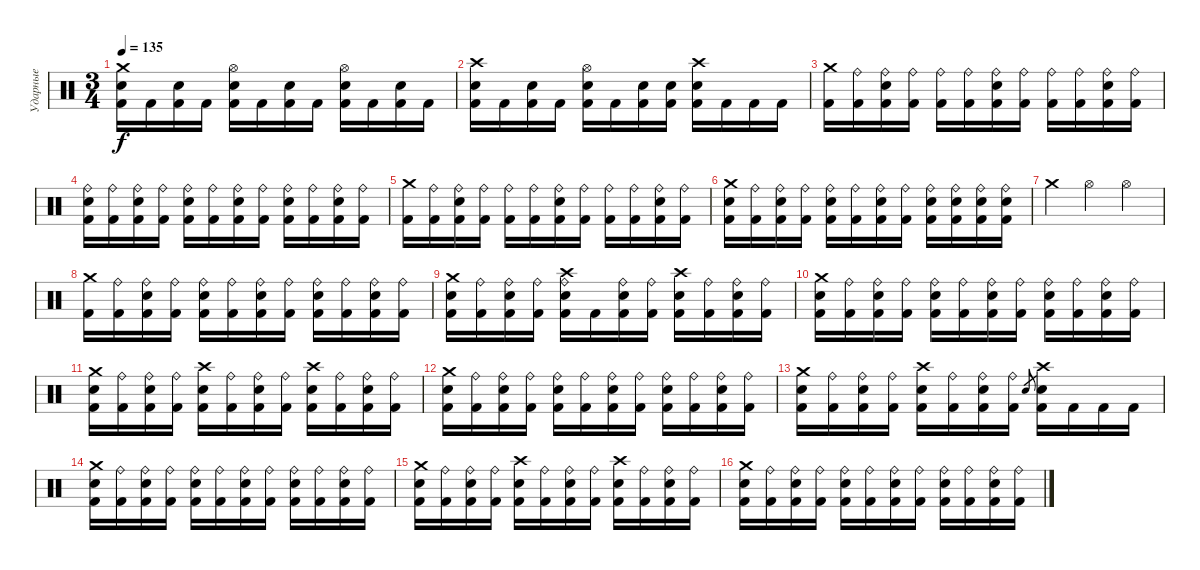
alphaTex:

\track ("Ударные" "Ударные") {instrument percussion}
\staff {score}
\articulation defaults
\ts (3 4)
\tempo 135
\clef neutral
\ks c
("Crash medium (hit)" "Electric Snare (hit)" "Kick (hit) 2").16{dy f} "Kick (hit) 2".16 ("Electric Snare (hit)" "Kick (hit) 2").16 "Kick (hit) 2".16 ("Hi-Hat (open)" "Electric Snare (hit)" "Kick (hit) 2").16 "Kick (hit) 2".16 ("Electric Snare (hit)" "Kick (hit) 2").16 "Kick (hit) 2".16 ("Hi-Hat (open)" "Electric Snare (hit)" "Kick (hit) 2").16 "Kick (hit) 2".16 ("Electric Snare (hit)" "Kick (hit) 2").16 "Kick (hit) 2".16 |
("Crash high (hit)" "Electric Snare (hit)" "Kick (hit) 2").16 "Kick (hit) 2".16 ("Electric Snare (hit)" "Kick (hit) 2").16 "Kick (hit) 2".16 ("Hi-Hat (open)" "Electric Snare (hit)" "Kick (hit) 2").16 "Kick (hit) 2".16 ("Electric Snare (hit)" "Kick (hit) 2").16 ("Electric Snare (hit)" "Kick (hit) 2").16 ("Crash high (hit)" "Electric Snare (hit)" "Kick (hit) 2").16 "Kick (hit) 2".16 "Kick (hit) 2".16 "Kick (hit) 2".16 |
("Crash medium (hit)" "Kick (hit) 2").16 ("Ride (bell)" "Kick (hit) 2").16 ("Ride (bell)" "Electric Snare (hit)" "Kick (hit) 2").16 ("Ride (bell)" "Kick (hit) 2").16 ("Ride (bell)" "Kick (hit) 2").16 ("Ride (bell)" "Kick (hit) 2").16 ("Ride (bell)" "Electric Snare (hit)" "Kick (hit) 2").16 ("Ride (bell)" "Kick (hit) 2").16 ("Ride (bell)" "Kick (hit) 2").16 ("Ride (bell)" "Kick (hit) 2").16 ("Ride (bell)" "Electric Snare (hit)" "Kick (hit) 2").16 ("Ride (bell)" "Kick (hit) 2").16 |
("Ride (bell)" "Electric Snare (hit)" "Kick (hit) 2").16 ("Ride (bell)" "Kick (hit) 2").16 ("Ride (bell)" "Electric Snare (hit)" "Kick (hit) 2").16 ("Ride (bell)" "Kick (hit) 2").16 ("Ride (bell)" "Electric Snare (hit)" "Kick (hit) 2").16 ("Ride (bell)" "Kick (hit) 2").16 ("Ride (bell)" "Electric Snare (hit)" "Kick (hit) 2").16 ("Ride (bell)" "Kick (hit) 2").16 ("Ride (bell)" "Electric Snare (hit)" "Kick (hit) 2").16 ("Ride (bell)" "Kick (hit) 2").16 ("Ride (bell)" "Electric Snare (hit)" "Kick (hit) 2").16 ("Ride (bell)" "Kick (hit) 2").16 |
("Crash medium (hit)" "Kick (hit) 2").16 ("Ride (bell)" "Kick (hit) 2").16 ("Ride (bell)" "Electric Snare (hit)" "Kick (hit) 2").16 ("Ride (bell)" "Kick (hit) 2").16 ("Ride (bell)" "Kick (hit) 2").16 ("Ride (bell)" "Kick (hit) 2").16 ("Ride (bell)" "Electric Snare (hit)" "Kick (hit) 2").16 ("Ride (bell)" "Kick (hit) 2").16 ("Ride (bell)" "Kick (hit) 2").16 ("Ride (bell)" "Kick (hit) 2").16 ("Ride (bell)" "Electric Snare (hit)" "Kick (hit) 2").16 ("Ride (bell)" "Kick (hit) 2").16 |
("Crash medium (hit)" "Electric Snare (hit)" "Kick (hit) 2").16 ("Ride (bell)" "Kick (hit) 2").16 ("Ride (bell)" "Electric Snare (hit)" "Kick (hit) 2").16 ("Ride (bell)" "Kick (hit) 2").16 ("Ride (bell)" "Electric Snare (hit)" "Kick (hit) 2").16 ("Ride (bell)" "Kick (hit) 2").16 ("Ride (bell)" "Electric Snare (hit)" "Kick (hit) 2").16 ("Ride (bell)" "Kick (hit) 2").16 ("Ride (bell)" "Electric Snare (hit)" "Kick (hit) 2").16 ("Ride (bell)" "Electric Snare (hit)" "Kick (hit) 2").16 ("Ride (bell)" "Electric Snare (hit)" "Kick (hit) 2").16 ("Ride (bell)" "Electric Snare (hit)" "Kick (hit) 2").16 |
"Crash medium (hit)".4 "Hi-Hat (open)".4 "Hi-Hat (open)".4 |
("Crash medium (hit)" "Kick (hit) 2").16 ("Ride (bell)" "Kick (hit) 2").16 ("Ride (bell)" "Electric Snare (hit)" "Kick (hit) 2").16 ("Ride (bell)" "Kick (hit) 2").16 ("Ride (bell)" "Electric Snare (hit)" "Kick (hit) 2").16 ("Ride (bell)" "Kick (hit) 2").16 ("Ride (bell)" "Electric Snare (hit)" "Kick (hit) 2").16 ("Ride (bell)" "Kick (hit) 2").16 ("Ride (bell)" "Electric Snare (hit)" "Kick (hit) 2").16 ("Ride (bell)" "Kick (hit) 2").16 ("Ride (bell)" "Electric Snare (hit)" "Kick (hit) 2").16 ("Ride (bell)" "Kick (hit) 2").16 |
("Crash medium (hit)" "Electric Snare (hit)" "Kick (hit) 2").16 ("Ride (bell)" "Kick (hit) 2").16 ("Ride (bell)" "Electric Snare (hit)" "Kick (hit) 2").16 ("Ride (bell)" "Kick (hit) 2").16 ("Crash high (hit)" "Ride (bell)" "Electric Snare (hit)" "Kick (hit) 2").16 "Kick (hit) 2".16 ("Ride (bell)" "Electric Snare (hit)" "Kick (hit) 2").16 ("Ride (bell)" "Kick (hit) 2").16 ("Crash high (hit)" "Electric Snare (hit)" "Kick (hit) 2").16 ("Ride (bell)" "Kick (hit) 2").16 ("Ride (bell)" "Electric Snare (hit)" "Kick (hit) 2").16 ("Ride (bell)" "Kick (hit) 2").16 |
("Crash medium (hit)" "Electric Snare (hit)" "Kick (hit) 2").16 ("Ride (bell)" "Kick (hit) 2").16 ("Ride (bell)" "Electric Snare (hit)" "Kick (hit) 2").16 ("Ride (bell)" "Kick (hit) 2").16 ("Ride (bell)" "Electric Snare (hit)" "Kick (hit) 2").16 ("Ride (bell)" "Kick (hit) 2").16 ("Ride (bell)" "Electric Snare (hit)" "Kick (hit) 2").16 ("Ride (bell)" "Kick (hit) 2").16 ("Ride (bell)" "Electric Snare (hit)" "Kick (hit) 2").16 ("Ride (bell)" "Kick (hit) 2").16 ("Ride (bell)" "Electric Snare (hit)" "Kick (hit) 2").16 ("Ride (bell)" "Kick (hit) 2").16 |
("Crash medium (hit)" "Electric Snare (hit)" "Kick (hit) 2").16 ("Ride (bell)" "Kick (hit) 2").16 ("Ride (bell)" "Electric Snare (hit)" "Kick (hit) 2").16 ("Ride (bell)" "Kick (hit) 2").16 ("Crash high (hit)" "Electric Snare (hit)" "Kick (hit) 2").16 ("Ride (bell)" "Kick (hit) 2").16 ("Ride (bell)" "Electric Snare (hit)" "Kick (hit) 2").16 ("Ride (bell)" "Kick (hit) 2").16 ("Crash high (hit)" "Electric Snare (hit)" "Kick (hit) 2").16 ("Ride (bell)" "Kick (hit) 2").16 ("Ride (bell)" "Electric Snare (hit)" "Kick (hit) 2").16 ("Ride (bell)" "Kick (hit) 2").16 |
("Crash medium (hit)" "Electric Snare (hit)" "Kick (hit) 2").16 ("Ride (bell)" "Kick (hit) 2").16 ("Ride (bell)" "Electric Snare (hit)" "Kick (hit) 2").16 ("Ride (bell)" "Kick (hit) 2").16 ("Ride (bell)" "Electric Snare (hit)" "Kick (hit) 2").16 ("Ride (bell)" "Kick (hit) 2").16 ("Ride (bell)" "Electric Snare (hit)" "Kick (hit) 2").16 ("Ride (bell)" "Kick (hit) 2").16 ("Ride (bell)" "Electric Snare (hit)" "Kick (hit) 2").16 ("Ride (bell)" "Kick (hit) 2").16 ("Ride (bell)" "Electric Snare (hit)" "Kick (hit) 2").16 ("Ride (bell)" "Kick (hit) 2").16 |
("Crash medium (hit)" "Electric Snare (hit)" "Kick (hit) 2").16 ("Ride (bell)" "Kick (hit) 2").16 ("Ride (bell)" "Electric Snare (hit)" "Kick (hit) 2").16 ("Ride (bell)" "Kick (hit) 2").16 ("Crash high (hit)" "Electric Snare (hit)" "Kick (hit) 2").16 ("Ride (bell)" "Kick (hit) 2").16 ("Ride (bell)" "Electric Snare (hit)" "Kick (hit) 2").16 ("Ride (bell)" "Kick (hit) 2").16 "Electric Snare (hit)".8{gr} ("Crash high (hit)" "Electric Snare (hit)" "Kick (hit) 2").16 "Kick (hit) 2".16 "Kick (hit) 2".16 "Kick (hit) 2".16 |
("Crash medium (hit)" "Electric Snare (hit)" "Kick (hit) 2").16 ("Ride (bell)" "Kick (hit) 2").16 ("Ride (bell)" "Electric Snare (hit)" "Kick (hit) 2").16 ("Ride (bell)" "Kick (hit) 2").16 ("Ride (bell)" "Electric Snare (hit)" "Kick (hit) 2").16 ("Ride (bell)" "Kick (hit) 2").16 ("Ride (bell)" "Electric Snare (hit)" "Kick (hit) 2").16 ("Ride (bell)" "Kick (hit) 2").16 ("Ride (bell)" "Electric Snare (hit)" "Kick (hit) 2").16 ("Ride (bell)" "Kick (hit) 2").16 ("Ride (bell)" "Electric Snare (hit)" "Kick (hit) 2").16 ("Ride (bell)" "Kick (hit) 2").16 |
("Crash medium (hit)" "Electric Snare (hit)" "Kick (hit) 2").16 ("Ride (bell)" "Kick (hit) 2").16 ("Ride (bell)" "Electric Snare (hit)" "Kick (hit) 2").16 ("Ride (bell)" "Kick (hit) 2").16 ("Crash high (hit)" "Electric Snare (hit)" "Kick (hit) 2").16 ("Ride (bell)" "Kick (hit) 2").16 ("Ride (bell)" "Electric Snare (hit)" "Kick (hit) 2").16 ("Ride (bell)" "Kick (hit) 2").16 ("Crash high (hit)" "Electric Snare (hit)" "Kick (hit) 2").16 ("Ride (bell)" "Kick (hit) 2").16 ("Ride (bell)" "Electric Snare (hit)" "Kick (hit) 2").16 ("Ride (bell)" "Kick (hit) 2").16 |
("Crash medium (hit)" "Electric Snare (hit)" "Kick (hit) 2").16 ("Ride (bell)" "Kick (hit) 2").16 ("Ride (bell)" "Electric Snare (hit)" "Kick (hit) 2").16 ("Ride (bell)" "Kick (hit) 2").16 ("Ride (bell)" "Electric Snare (hit)" "Kick (hit) 2").16 ("Ride (bell)" "Kick (hit) 2").16 ("Ride (bell)" "Electric Snare (hit)" "Kick (hit) 2").16 ("Ride (bell)" "Kick (hit) 2").16 ("Ride (bell)" "Electric Snare (hit)" "Kick (hit) 2").16 ("Ride (bell)" "Kick (hit) 2").16 ("Ride (bell)" "Electric Snare (hit)" "Kick (hit) 2").16 ("Ride (bell)" "Kick (hit) 2").16
